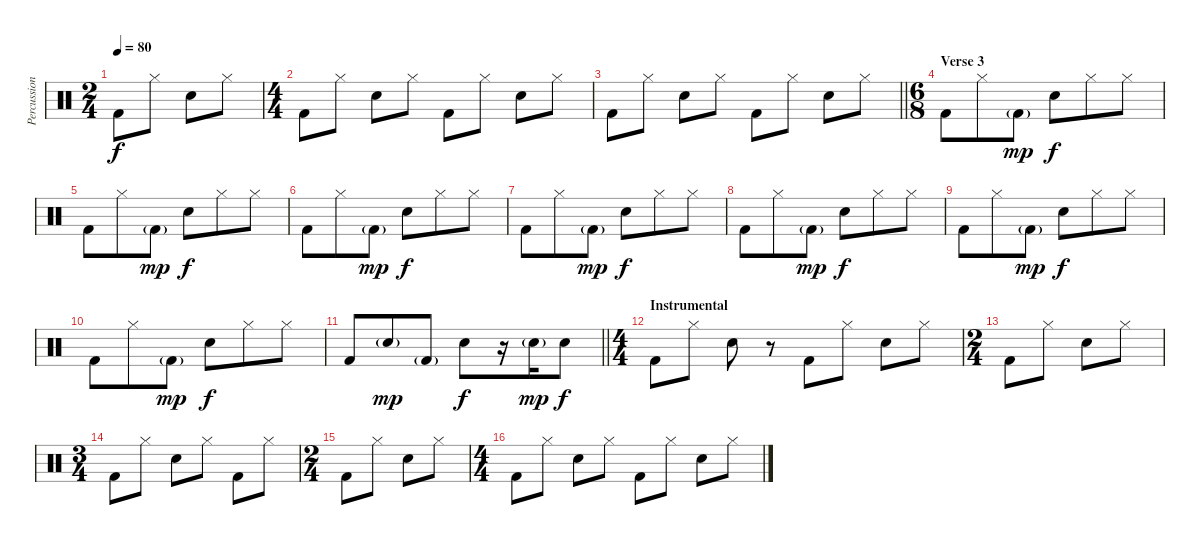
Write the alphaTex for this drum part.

\track ("Percussion" "Percussion") {instrument percussion}
\staff {score}
\articulation defaults
\ts (2 4)
\tempo 80
\clef neutral
\ks c "Kick (hit) 2".8{dy f} "Hi-Hat (closed)".8 "Snare (hit) 2".8 "Hi-Hat (closed)".8
|
\ts (4 4)
"Kick (hit) 2".8 "Hi-Hat (closed)".8 "Snare (hit) 2".8 "Hi-Hat (closed)".8 "Kick (hit) 2".8 "Hi-Hat (closed)".8 "Snare (hit) 2".8 "Hi-Hat (closed)".8 |
\barLineRight lightlight "Kick (hit) 2".8 "Hi-Hat (closed)".8 "Snare (hit) 2".8 "Hi-Hat (closed)".8 "Kick (hit) 2".8 "Hi-Hat (closed)".8 "Snare (hit) 2".8 "Hi-Hat (closed)".8
|
\ts (6 8)
\section ("" "Verse 3")
"Kick (hit) 2".8 "Hi-Hat (closed)".8 "Kick (hit) 2"{g}.8{dy mp} "Snare (hit) 2".8{dy f} "Hi-Hat (closed)".8 "Hi-Hat (closed)".8 |
"Kick (hit) 2".8 "Hi-Hat (closed)".8 "Kick (hit) 2"{g}.8{dy mp} "Snare (hit) 2".8{dy f} "Hi-Hat (closed)".8 "Hi-Hat (closed)".8 |
"Kick (hit) 2".8 "Hi-Hat (closed)".8 "Kick (hit) 2"{g}.8{dy mp} "Snare (hit) 2".8{dy f} "Hi-Hat (closed)".8 "Hi-Hat (closed)".8 |
"Kick (hit) 2".8 "Hi-Hat (closed)".8 "Kick (hit) 2"{g}.8{dy mp} "Snare (hit) 2".8{dy f} "Hi-Hat (closed)".8 "Hi-Hat (closed)".8 |
"Kick (hit) 2".8 "Hi-Hat (closed)".8 "Kick (hit) 2"{g}.8{dy mp} "Snare (hit) 2".8{dy f} "Hi-Hat (closed)".8 "Hi-Hat (closed)".8 |
"Kick (hit) 2".8 "Hi-Hat (closed)".8 "Kick (hit) 2"{g}.8{dy mp} "Snare (hit) 2".8{dy f} "Hi-Hat (closed)".8 "Hi-Hat (closed)".8 |
"Kick (hit) 2".8 "Hi-Hat (closed)".8 "Kick (hit) 2"{g}.8{dy mp} "Snare (hit) 2".8{dy f} "Hi-Hat (closed)".8 "Hi-Hat (closed)".8 |
\barLineRight lightlight "Kick (hit) 2".8 "Snare (hit) 2"{g}.8{dy mp} "Kick (hit) 2"{g}.8 "Snare (hit) 2".8{dy f}
r.16 "Snare (hit) 2"{g}.16{dy mp} "Snare (hit) 2".8{dy f} |
\ts (4 4)
\section ("" "Instrumental")
"Kick (hit) 2".8 "Hi-Hat (closed)".8 "Snare (hit) 2".8 r.8 "Kick (hit) 2".8 "Hi-Hat (closed)".8 "Snare (hit) 2".8 "Hi-Hat (closed)".8 |
\ts (2 4)
"Kick (hit) 2".8 "Hi-Hat (closed)".8 "Snare (hit) 2".8 "Hi-Hat (closed)".8 |
\ts (3 4)
"Kick (hit) 2".8 "Hi-Hat (closed)".8 "Snare (hit) 2".8 "Hi-Hat (closed)".8 "Kick (hit) 2".8 "Hi-Hat (closed)".8 |
\ts (2 4)
"Kick (hit) 2".8 "Hi-Hat (closed)".8 "Snare (hit) 2".8 "Hi-Hat (closed)".8 |
\ts (4 4)
"Kick (hit) 2".8 "Hi-Hat (closed)".8 "Snare (hit) 2".8 "Hi-Hat (closed)".8 "Kick (hit) 2".8 "Hi-Hat (closed)".8 "Snare (hit) 2".8 "Hi-Hat (closed)".8
